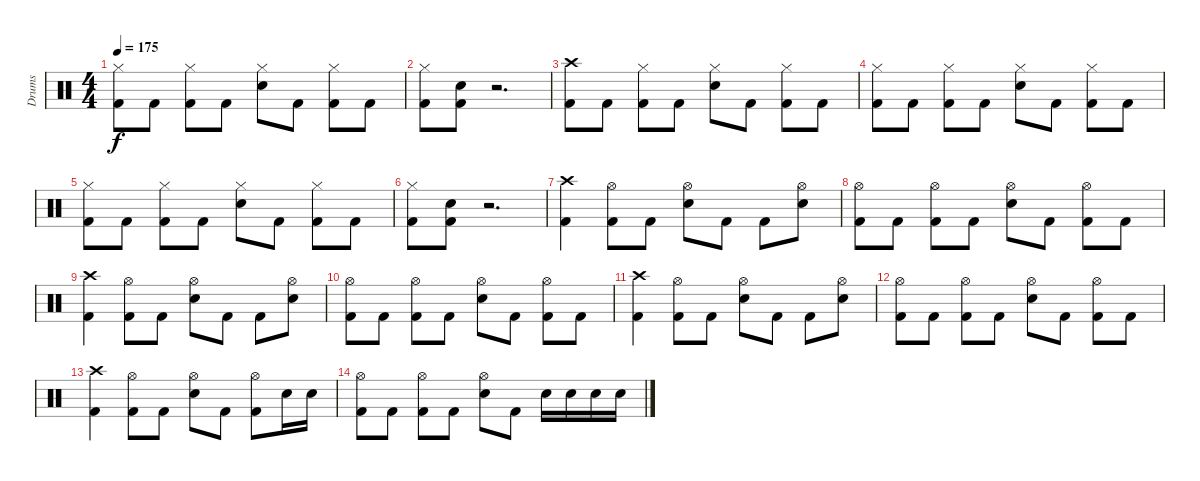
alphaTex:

\track ("Drums" "Drums") {instrument percussion}
\staff {score}
\articulation defaults
\ts (4 4)
\tempo 175
\clef neutral
\ks c
("Hi-Hat (closed)" "Kick (hit) 2").8{dy f} "Kick (hit) 2".8 ("Hi-Hat (closed)" "Kick (hit) 2").8 "Kick (hit) 2".8 ("Hi-Hat (closed)" "Snare (hit) 2").8 "Kick (hit) 2".8 ("Hi-Hat (closed)" "Kick (hit) 2").8 "Kick (hit) 2".8 |
("Hi-Hat (closed)" "Kick (hit) 2").8 ("Snare (hit) 2" "Kick (hit) 2").8 r.2{d} |
("Crash high (hit)" "Kick (hit) 2").8 "Kick (hit) 2".8 ("Hi-Hat (closed)" "Kick (hit) 2").8 "Kick (hit) 2".8 ("Hi-Hat (closed)" "Snare (hit) 2").8 "Kick (hit) 2".8 ("Hi-Hat (closed)" "Kick (hit) 2").8 "Kick (hit) 2".8 |
("Hi-Hat (closed)" "Kick (hit) 2").8 "Kick (hit) 2".8 ("Hi-Hat (closed)" "Kick (hit) 2").8 "Kick (hit) 2".8 ("Hi-Hat (closed)" "Snare (hit) 2").8 "Kick (hit) 2".8 ("Hi-Hat (closed)" "Kick (hit) 2").8 "Kick (hit) 2".8 |
("Hi-Hat (closed)" "Kick (hit) 2").8 "Kick (hit) 2".8 ("Hi-Hat (closed)" "Kick (hit) 2").8 "Kick (hit) 2".8 ("Hi-Hat (closed)" "Snare (hit) 2").8 "Kick (hit) 2".8 ("Hi-Hat (closed)" "Kick (hit) 2").8 "Kick (hit) 2".8 |
("Hi-Hat (closed)" "Kick (hit) 2").8 ("Snare (hit) 2" "Kick (hit) 2").8 r.2{d} |
("Crash high (hit)" "Kick (hit) 2").4 ("Hi-Hat (open)" "Kick (hit) 2").8 "Kick (hit) 2".8 ("Hi-Hat (open)" "Snare (hit) 2").8 "Kick (hit) 2".8 "Kick (hit) 2".8 ("Hi-Hat (open)" "Snare (hit) 2").8 |
("Hi-Hat (open)" "Kick (hit) 2").8 "Kick (hit) 2".8 ("Hi-Hat (open)" "Kick (hit) 2").8 "Kick (hit) 2".8 ("Hi-Hat (open)" "Snare (hit) 2").8 "Kick (hit) 2".8 ("Hi-Hat (open)" "Kick (hit) 2").8 "Kick (hit) 2".8 |
("Crash high (hit)" "Kick (hit) 2").4 ("Hi-Hat (open)" "Kick (hit) 2").8 "Kick (hit) 2".8 ("Hi-Hat (open)" "Snare (hit) 2").8 "Kick (hit) 2".8 "Kick (hit) 2".8 ("Hi-Hat (open)" "Snare (hit) 2").8 |
("Hi-Hat (open)" "Kick (hit) 2").8 "Kick (hit) 2".8 ("Hi-Hat (open)" "Kick (hit) 2").8 "Kick (hit) 2".8 ("Hi-Hat (open)" "Snare (hit) 2").8 "Kick (hit) 2".8 ("Hi-Hat (open)" "Kick (hit) 2").8 "Kick (hit) 2".8 |
("Crash high (hit)" "Kick (hit) 2").4 ("Hi-Hat (open)" "Kick (hit) 2").8 "Kick (hit) 2".8 ("Hi-Hat (open)" "Snare (hit) 2").8 "Kick (hit) 2".8 "Kick (hit) 2".8 ("Hi-Hat (open)" "Snare (hit) 2").8 |
("Hi-Hat (open)" "Kick (hit) 2").8 "Kick (hit) 2".8 ("Hi-Hat (open)" "Kick (hit) 2").8 "Kick (hit) 2".8 ("Hi-Hat (open)" "Snare (hit) 2").8 "Kick (hit) 2".8 ("Hi-Hat (open)" "Kick (hit) 2").8 "Kick (hit) 2".8 |
("Crash high (hit)" "Kick (hit) 2").4 ("Hi-Hat (open)" "Kick (hit) 2").8 "Kick (hit) 2".8 ("Hi-Hat (open)" "Snare (hit) 2").8 "Kick (hit) 2".8 ("Hi-Hat (open)" "Kick (hit) 2").8 "Snare (hit) 2".16 "Snare (hit) 2".16 |
("Hi-Hat (open)" "Kick (hit) 2").8 "Kick (hit) 2".8 ("Hi-Hat (open)" "Kick (hit) 2").8 "Kick (hit) 2".8 ("Hi-Hat (open)" "Snare (hit) 2").8 "Kick (hit) 2".8 "Snare (hit) 2".16 "Snare (hit) 2".16 "Snare (hit) 2".16 "Snare (hit) 2".16
